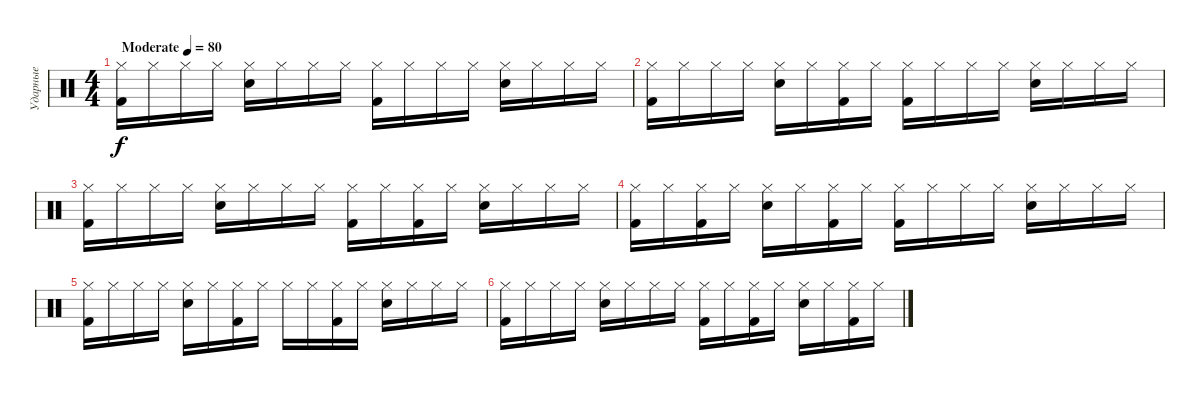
\track ("Ударные" "Ударные") {instrument percussion}
\staff {score}
\articulation defaults
\ts (4 4)
\tempo (80 "Moderate")
\clef neutral
\ks c
("Hi-Hat (closed)" "Kick (hit) 2").16{dy f} "Hi-Hat (closed)".16 "Hi-Hat (closed)".16 "Hi-Hat (closed)".16 ("Hi-Hat (closed)" "Electric Snare (hit)").16 "Hi-Hat (closed)".16 "Hi-Hat (closed)".16 "Hi-Hat (closed)".16 ("Hi-Hat (closed)" "Kick (hit) 2").16 "Hi-Hat (closed)".16 "Hi-Hat (closed)".16 "Hi-Hat (closed)".16 ("Hi-Hat (closed)" "Electric Snare (hit)").16 "Hi-Hat (closed)".16 "Hi-Hat (closed)".16 "Hi-Hat (closed)".16 |
("Hi-Hat (closed)" "Kick (hit) 2").16 "Hi-Hat (closed)".16 "Hi-Hat (closed)".16 "Hi-Hat (closed)".16 ("Hi-Hat (closed)" "Electric Snare (hit)").16 "Hi-Hat (closed)".16 ("Hi-Hat (closed)" "Kick (hit) 2").16 "Hi-Hat (closed)".16 ("Hi-Hat (closed)" "Kick (hit) 2").16 "Hi-Hat (closed)".16 "Hi-Hat (closed)".16 "Hi-Hat (closed)".16 ("Hi-Hat (closed)" "Electric Snare (hit)").16 "Hi-Hat (closed)".16 "Hi-Hat (closed)".16 "Hi-Hat (closed)".16 |
("Hi-Hat (closed)" "Kick (hit) 2").16 "Hi-Hat (closed)".16 "Hi-Hat (closed)".16 "Hi-Hat (closed)".16 ("Hi-Hat (closed)" "Electric Snare (hit)").16 "Hi-Hat (closed)".16 "Hi-Hat (closed)".16 "Hi-Hat (closed)".16 ("Hi-Hat (closed)" "Kick (hit) 2").16 "Hi-Hat (closed)".16 ("Hi-Hat (closed)" "Kick (hit) 2").16 "Hi-Hat (closed)".16 ("Hi-Hat (closed)" "Electric Snare (hit)").16 "Hi-Hat (closed)".16 "Hi-Hat (closed)".16 "Hi-Hat (closed)".16 |
("Hi-Hat (closed)" "Kick (hit) 2").16 "Hi-Hat (closed)".16 ("Hi-Hat (closed)" "Kick (hit) 2").16 "Hi-Hat (closed)".16 ("Hi-Hat (closed)" "Electric Snare (hit)").16 "Hi-Hat (closed)".16 ("Hi-Hat (closed)" "Kick (hit) 2").16 "Hi-Hat (closed)".16 ("Hi-Hat (closed)" "Kick (hit) 2").16 "Hi-Hat (closed)".16 "Hi-Hat (closed)".16 "Hi-Hat (closed)".16 ("Hi-Hat (closed)" "Electric Snare (hit)").16 "Hi-Hat (closed)".16 "Hi-Hat (closed)".16 "Hi-Hat (closed)".16 |
("Hi-Hat (closed)" "Kick (hit) 2").16 "Hi-Hat (closed)".16 "Hi-Hat (closed)".16 "Hi-Hat (closed)".16 ("Hi-Hat (closed)" "Electric Snare (hit)").16 "Hi-Hat (closed)".16 ("Hi-Hat (closed)" "Kick (hit) 2").16 "Hi-Hat (closed)".16 "Hi-Hat (closed)".16 "Hi-Hat (closed)".16 ("Hi-Hat (closed)" "Kick (hit) 2").16 "Hi-Hat (closed)".16 ("Hi-Hat (closed)" "Electric Snare (hit)").16 "Hi-Hat (closed)".16 "Hi-Hat (closed)".16 "Hi-Hat (closed)".16 |
("Hi-Hat (closed)" "Kick (hit) 2").16 "Hi-Hat (closed)".16 "Hi-Hat (closed)".16 "Hi-Hat (closed)".16 ("Hi-Hat (closed)" "Electric Snare (hit)").16 "Hi-Hat (closed)".16 "Hi-Hat (closed)".16 "Hi-Hat (closed)".16 ("Hi-Hat (closed)" "Kick (hit) 2").16 "Hi-Hat (closed)".16 ("Hi-Hat (closed)" "Kick (hit) 2").16 "Hi-Hat (closed)".16 ("Hi-Hat (closed)" "Electric Snare (hit)").16 "Hi-Hat (closed)".16 ("Hi-Hat (closed)" "Kick (hit) 2").16 "Hi-Hat (closed)".16
